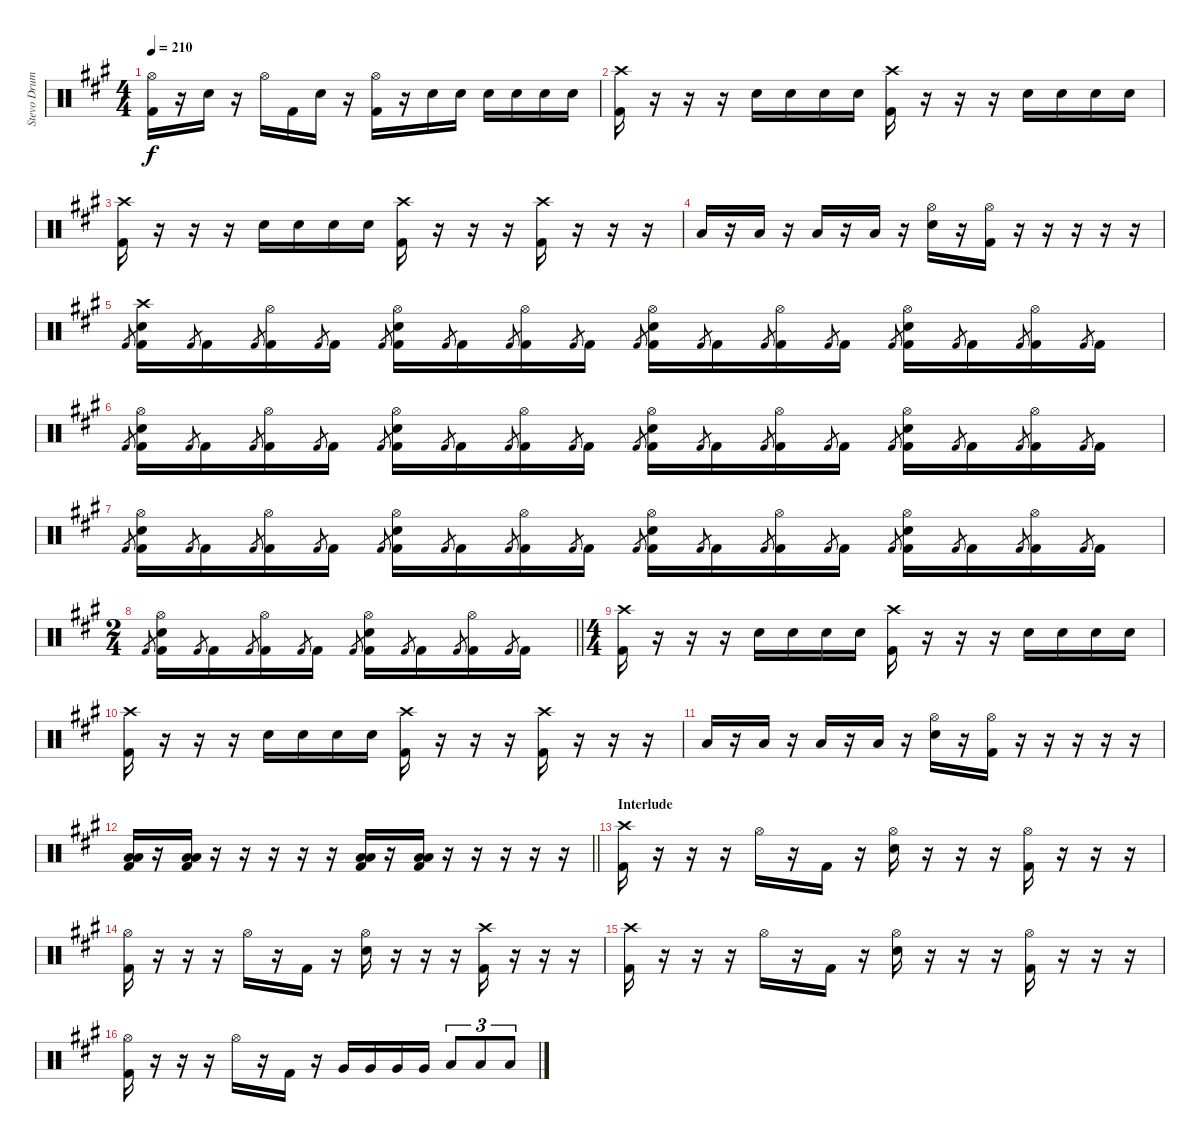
\track ("Stevo Drums" "Stevo Drum") {instrument percussion}
\staff {score}
\articulation defaults
\ts (4 4)
\tempo 210
\clef neutral
\ks a
("Hi-Hat (open)" "Kick (hit) 2").16{dy f} r.16 "Snare (hit) 2".16 r.16 "Hi-Hat (open)".16 "Kick (hit) 2".16 "Snare (hit) 2".16 r.16 ("Hi-Hat (open)" "Kick (hit) 2").16 r.16 "Snare (hit) 2".16 "Snare (hit) 2".16 "Snare (hit) 2".16 "Snare (hit) 2".16 "Snare (hit) 2".16 "Snare (hit) 2".16 |
("Crash high (hit)" "Kick (hit) 2").16 r.16 r.16 r.16 "Snare (hit) 2".16 "Snare (hit) 2".16 "Snare (hit) 2".16 "Snare (hit) 2".16 ("Crash high (hit)" "Kick (hit) 2").16 r.16 r.16 r.16 "Snare (hit) 2".16 "Snare (hit) 2".16 "Snare (hit) 2".16 "Snare (hit) 2".16 |
("Crash high (hit)" "Kick (hit) 2").16 r.16 r.16 r.16 "Snare (hit) 2".16 "Snare (hit) 2".16 "Snare (hit) 2".16 "Snare (hit) 2".16 ("Crash high (hit)" "Kick (hit) 2").16 r.16 r.16 r.16 ("Crash high (hit)" "Kick (hit) 2").16 r.16 r.16 r.16 |
"Low Floor Tom (hit)".16 r.16 "Low Floor Tom (hit)".16 r.16 "Low Floor Tom (hit)".16 r.16 "Low Floor Tom (hit)".16 r.16 ("Hi-Hat (open)" "Snare (hit) 2").16 r.16 ("Hi-Hat (open)" "Kick (hit) 2").16 r.16 r.16 r.16 r.16 r.16 |
"Kick (hit) 2".8{gr} ("Crash high (hit)" "Snare (hit) 2" "Kick (hit) 2").16 "Kick (hit) 2".8{gr} "Kick (hit) 2".16 "Kick (hit) 2".8{gr} ("Hi-Hat (open)" "Kick (hit) 2").16 "Kick (hit) 2".8{gr} "Kick (hit) 2".16 "Kick (hit) 2".8{gr} ("Hi-Hat (open)" "Snare (hit) 2" "Kick (hit) 2").16 "Kick (hit) 2".8{gr} "Kick (hit) 2".16 "Kick (hit) 2".8{gr} ("Hi-Hat (open)" "Kick (hit) 2").16 "Kick (hit) 2".8{gr} "Kick (hit) 2".16 "Kick (hit) 2".8{gr} ("Hi-Hat (open)" "Snare (hit) 2" "Kick (hit) 2").16 "Kick (hit) 2".8{gr} "Kick (hit) 2".16 "Kick (hit) 2".8{gr} ("Hi-Hat (open)" "Kick (hit) 2").16 "Kick (hit) 2".8{gr} "Kick (hit) 2".16 "Kick (hit) 2".8{gr} ("Hi-Hat (open)" "Snare (hit) 2" "Kick (hit) 2").16 "Kick (hit) 2".8{gr} "Kick (hit) 2".16 "Kick (hit) 2".8{gr} ("Hi-Hat (open)" "Kick (hit) 2").16 "Kick (hit) 2".8{gr} "Kick (hit) 2".16 |
"Kick (hit) 2".8{gr} ("Hi-Hat (open)" "Snare (hit) 2" "Kick (hit) 2").16 "Kick (hit) 2".8{gr} "Kick (hit) 2".16 "Kick (hit) 2".8{gr} ("Hi-Hat (open)" "Kick (hit) 2").16 "Kick (hit) 2".8{gr} "Kick (hit) 2".16 "Kick (hit) 2".8{gr} ("Hi-Hat (open)" "Snare (hit) 2" "Kick (hit) 2").16 "Kick (hit) 2".8{gr} "Kick (hit) 2".16 "Kick (hit) 2".8{gr} ("Hi-Hat (open)" "Kick (hit) 2").16 "Kick (hit) 2".8{gr} "Kick (hit) 2".16 "Kick (hit) 2".8{gr} ("Hi-Hat (open)" "Snare (hit) 2" "Kick (hit) 2").16 "Kick (hit) 2".8{gr} "Kick (hit) 2".16 "Kick (hit) 2".8{gr} ("Hi-Hat (open)" "Kick (hit) 2").16 "Kick (hit) 2".8{gr} "Kick (hit) 2".16 "Kick (hit) 2".8{gr} ("Hi-Hat (open)" "Snare (hit) 2" "Kick (hit) 2").16 "Kick (hit) 2".8{gr} "Kick (hit) 2".16 "Kick (hit) 2".8{gr} ("Hi-Hat (open)" "Kick (hit) 2").16 "Kick (hit) 2".8{gr} "Kick (hit) 2".16 |
"Kick (hit) 2".8{gr} ("Hi-Hat (open)" "Snare (hit) 2" "Kick (hit) 2").16 "Kick (hit) 2".8{gr} "Kick (hit) 2".16 "Kick (hit) 2".8{gr} ("Hi-Hat (open)" "Kick (hit) 2").16 "Kick (hit) 2".8{gr} "Kick (hit) 2".16 "Kick (hit) 2".8{gr} ("Hi-Hat (open)" "Snare (hit) 2" "Kick (hit) 2").16 "Kick (hit) 2".8{gr} "Kick (hit) 2".16 "Kick (hit) 2".8{gr} ("Hi-Hat (open)" "Kick (hit) 2").16 "Kick (hit) 2".8{gr} "Kick (hit) 2".16 "Kick (hit) 2".8{gr} ("Hi-Hat (open)" "Snare (hit) 2" "Kick (hit) 2").16 "Kick (hit) 2".8{gr} "Kick (hit) 2".16 "Kick (hit) 2".8{gr} ("Hi-Hat (open)" "Kick (hit) 2").16 "Kick (hit) 2".8{gr} "Kick (hit) 2".16 "Kick (hit) 2".8{gr} ("Hi-Hat (open)" "Snare (hit) 2" "Kick (hit) 2").16 "Kick (hit) 2".8{gr} "Kick (hit) 2".16 "Kick (hit) 2".8{gr} ("Hi-Hat (open)" "Kick (hit) 2").16 "Kick (hit) 2".8{gr} "Kick (hit) 2".16 |
\ts (2 4)
\barLineRight lightlight "Kick (hit) 2".8{gr}
("Hi-Hat (open)" "Snare (hit) 2" "Kick (hit) 2").16 "Kick (hit) 2".8{gr} "Kick (hit) 2".16 "Kick (hit) 2".8{gr} ("Hi-Hat (open)" "Kick (hit) 2").16 "Kick (hit) 2".8{gr} "Kick (hit) 2".16 "Kick (hit) 2".8{gr} ("Hi-Hat (open)" "Snare (hit) 2" "Kick (hit) 2").16 "Kick (hit) 2".8{gr} "Kick (hit) 2".16 "Kick (hit) 2".8{gr} ("Hi-Hat (open)" "Kick (hit) 2").16 "Kick (hit) 2".8{gr} "Kick (hit) 2".16 |
\ts (4 4)
("Crash high (hit)" "Kick (hit) 2").16 r.16 r.16 r.16 "Snare (hit) 2".16 "Snare (hit) 2".16 "Snare (hit) 2".16 "Snare (hit) 2".16 ("Crash high (hit)" "Kick (hit) 2").16 r.16 r.16 r.16 "Snare (hit) 2".16 "Snare (hit) 2".16 "Snare (hit) 2".16 "Snare (hit) 2".16 |
("Crash high (hit)" "Kick (hit) 2").16 r.16 r.16 r.16 "Snare (hit) 2".16 "Snare (hit) 2".16 "Snare (hit) 2".16 "Snare (hit) 2".16 ("Crash high (hit)" "Kick (hit) 2").16 r.16 r.16 r.16 ("Crash high (hit)" "Kick (hit) 2").16 r.16 r.16 r.16 |
"Low Floor Tom (hit)".16 r.16 "Low Floor Tom (hit)".16 r.16 "Low Floor Tom (hit)".16 r.16 "Low Floor Tom (hit)".16 r.16 ("Hi-Hat (open)" "Snare (hit) 2").16 r.16 ("Hi-Hat (open)" "Kick (hit) 2").16 r.16 r.16 r.16 r.16 r.16 |
\barLineRight lightlight
("Low Tom (hit)" "Low Floor Tom (hit)" "Kick (hit) 2").16 r.16 ("Low Tom (hit)" "Low Floor Tom (hit)" "Kick (hit) 2").16 r.16 r.16 r.16 r.16 r.16 ("Low Tom (hit)" "Low Floor Tom (hit)" "Kick (hit) 2").16 r.16 ("Low Tom (hit)" "Low Floor Tom (hit)" "Kick (hit) 2").16 r.16 r.16 r.16 r.16 r.16 |
\section ("" "Interlude")
("Crash high (hit)" "Kick (hit) 2").16 r.16 r.16 r.16 "Hi-Hat (open)".16 r.16 "Kick (hit) 2".16 r.16 ("Hi-Hat (open)" "Snare (hit) 2").16 r.16 r.16 r.16 ("Hi-Hat (open)" "Kick (hit) 2").16 r.16 r.16 r.16 |
("Hi-Hat (open)" "Kick (hit) 2").16 r.16 r.16 r.16 "Hi-Hat (open)".16 r.16 "Kick (hit) 2".16 r.16 ("Hi-Hat (open)" "Snare (hit) 2").16 r.16 r.16 r.16 ("Crash high (hit)" "Kick (hit) 2").16 r.16 r.16 r.16 |
("Crash high (hit)" "Kick (hit) 2").16 r.16 r.16 r.16 "Hi-Hat (open)".16 r.16 "Kick (hit) 2".16 r.16 ("Hi-Hat (open)" "Snare (hit) 2").16 r.16 r.16 r.16 ("Hi-Hat (open)" "Kick (hit) 2").16 r.16 r.16 r.16 |
("Hi-Hat (open)" "Kick (hit) 2").16 r.16 r.16 r.16 "Hi-Hat (open)".16 r.16 "Kick (hit) 2".16 r.16 "Very Low Tom (hit)".16 "Very Low Tom (hit)".16 "Very Low Tom (hit)".16 "Very Low Tom (hit)".16 "Low Tom (hit)".8{tu (3 2)} "Low Tom (hit)".8{tu (3 2)} "Low Tom (hit)".8{tu (3 2)}
